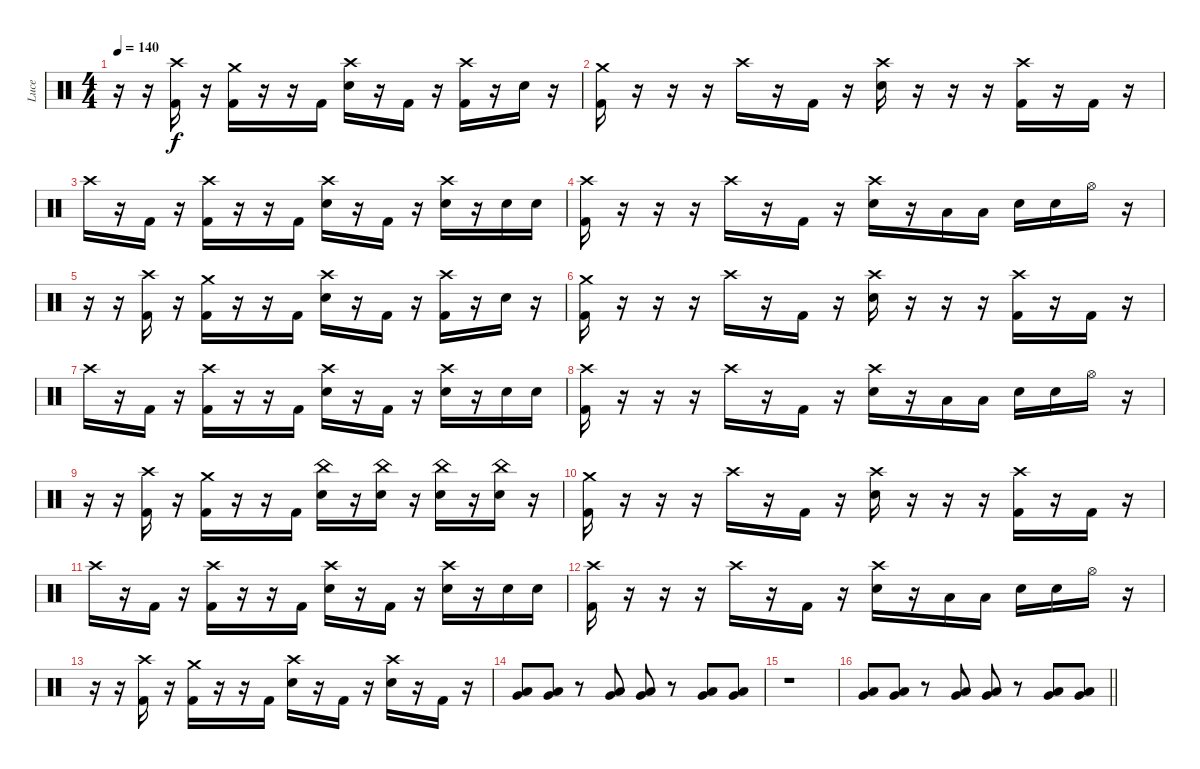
\track ("Luce" "Luce") {instrument percussion}
\staff {score}
\articulation defaults
\ts (4 4)
\tempo 140
\clef neutral
\ks c
r.16{dy f} r.16 ("Crash high (hit)" "Kick (hit) 2").16 r.16 ("Crash medium (hit)" "Kick (hit) 2").16 r.16 r.16 "Kick (hit) 2".16 ("Crash high (hit)" "Electric Snare (hit)").16 r.16 "Kick (hit) 2".16 r.16 ("Crash high (hit)" "Kick (hit) 2").16 r.16 "Electric Snare (hit)".16 r.16 |
("Crash medium (hit)" "Kick (hit) 2").16 r.16 r.16 r.16 "Crash high (hit)".16 r.16 "Kick (hit) 2".16 r.16 ("Crash high (hit)" "Electric Snare (hit)").16 r.16 r.16 r.16 ("Crash high (hit)" "Kick (hit) 2").16 r.16 "Kick (hit) 2".16 r.16 |
"Crash high (hit)".16 r.16 "Kick (hit) 2".16 r.16 ("Crash high (hit)" "Kick (hit) 2").16 r.16 r.16 "Kick (hit) 2".16 ("Crash high (hit)" "Electric Snare (hit)").16 r.16 "Kick (hit) 2".16 r.16 ("Crash high (hit)" "Electric Snare (hit)").16 r.16 "Electric Snare (hit)".16 "Electric Snare (hit)".16 |
("Crash high (hit)" "Kick (hit) 2").16 r.16 r.16 r.16 "Crash high (hit)".16 r.16 "Kick (hit) 2".16 r.16 ("Crash high (hit)" "Electric Snare (hit)").16 r.16 "Low Tom (hit)".16 "Low Tom (hit)".16 "Electric Snare (hit)".16 "Electric Snare (hit)".16 "Hi-Hat (open)".16 r.16 |
r.16 r.16 ("Crash high (hit)" "Kick (hit) 2").16 r.16 ("Crash medium (hit)" "Kick (hit) 2").16 r.16 r.16 "Kick (hit) 2".16 ("Crash high (hit)" "Electric Snare (hit)").16 r.16 "Kick (hit) 2".16 r.16 ("Crash high (hit)" "Kick (hit) 2").16 r.16 "Electric Snare (hit)".16 r.16 |
("Crash medium (hit)" "Kick (hit) 2").16 r.16 r.16 r.16 "Crash high (hit)".16 r.16 "Kick (hit) 2".16 r.16 ("Crash high (hit)" "Electric Snare (hit)").16 r.16 r.16 r.16 ("Crash high (hit)" "Kick (hit) 2").16 r.16 "Kick (hit) 2".16 r.16 |
"Crash high (hit)".16 r.16 "Kick (hit) 2".16 r.16 ("Crash high (hit)" "Kick (hit) 2").16 r.16 r.16 "Kick (hit) 2".16 ("Crash high (hit)" "Electric Snare (hit)").16 r.16 "Kick (hit) 2".16 r.16 ("Crash high (hit)" "Electric Snare (hit)").16 r.16 "Electric Snare (hit)".16 "Electric Snare (hit)".16 |
("Crash high (hit)" "Kick (hit) 2").16 r.16 r.16 r.16 "Crash high (hit)".16 r.16 "Kick (hit) 2".16 r.16 ("Crash high (hit)" "Electric Snare (hit)").16 r.16 "Low Tom (hit)".16 "Low Tom (hit)".16 "Electric Snare (hit)".16 "Electric Snare (hit)".16 "Hi-Hat (open)".16 r.16 |
r.16 r.16 ("Crash high (hit)" "Kick (hit) 2").16 r.16 ("Crash medium (hit)" "Kick (hit) 2").16 r.16 r.16 "Kick (hit) 2".16 ("China (hit)" "Electric Snare (hit)").16 r.16 ("China (hit)" "Electric Snare (hit)").16 r.16 ("China (hit)" "Electric Snare (hit)").16 r.16 ("China (hit)" "Electric Snare (hit)").16 r.16 |
("Crash medium (hit)" "Kick (hit) 2").16 r.16 r.16 r.16 "Crash high (hit)".16 r.16 "Kick (hit) 2".16 r.16 ("Crash high (hit)" "Electric Snare (hit)").16 r.16 r.16 r.16 ("Crash high (hit)" "Kick (hit) 2").16 r.16 "Kick (hit) 2".16 r.16 |
"Crash high (hit)".16 r.16 "Kick (hit) 2".16 r.16 ("Crash high (hit)" "Kick (hit) 2").16 r.16 r.16 "Kick (hit) 2".16 ("Crash high (hit)" "Electric Snare (hit)").16 r.16 "Kick (hit) 2".16 r.16 ("Crash high (hit)" "Electric Snare (hit)").16 r.16 "Electric Snare (hit)".16 "Electric Snare (hit)".16 |
("Crash high (hit)" "Kick (hit) 2").16 r.16 r.16 r.16 "Crash high (hit)".16 r.16 "Kick (hit) 2".16 r.16 ("Crash high (hit)" "Electric Snare (hit)").16 r.16 "Low Tom (hit)".16 "Low Tom (hit)".16 "Electric Snare (hit)".16 "Electric Snare (hit)".16 "Hi-Hat (open)".16 r.16 |
r.16 r.16 ("Crash high (hit)" "Kick (hit) 2").16 r.16 ("Crash medium (hit)" "Kick (hit) 2").16 r.16 r.16 "Kick (hit) 2".16 ("Crash high (hit)" "Electric Snare (hit)").16 r.16 "Kick (hit) 2".16 r.16 ("Crash high (hit)" "Electric Snare (hit)").16 r.16 "Kick (hit) 2".16 r.16 |
("Low Tom (hit)" "Very Low Tom (hit)").8 ("Low Tom (hit)" "Very Low Tom (hit)").8 r.8 ("Low Tom (hit)" "Very Low Tom (hit)").8 ("Low Tom (hit)" "Very Low Tom (hit)").8 r.8 ("Low Tom (hit)" "Very Low Tom (hit)").8 ("Low Tom (hit)" "Very Low Tom (hit)").8 |
r.1 |
\barLineRight lightlight
("Low Tom (hit)" "Very Low Tom (hit)").8 ("Low Tom (hit)" "Very Low Tom (hit)").8 r.8 ("Low Tom (hit)" "Very Low Tom (hit)").8 ("Low Tom (hit)" "Very Low Tom (hit)").8 r.8 ("Low Tom (hit)" "Very Low Tom (hit)").8 ("Low Tom (hit)" "Very Low Tom (hit)").8
